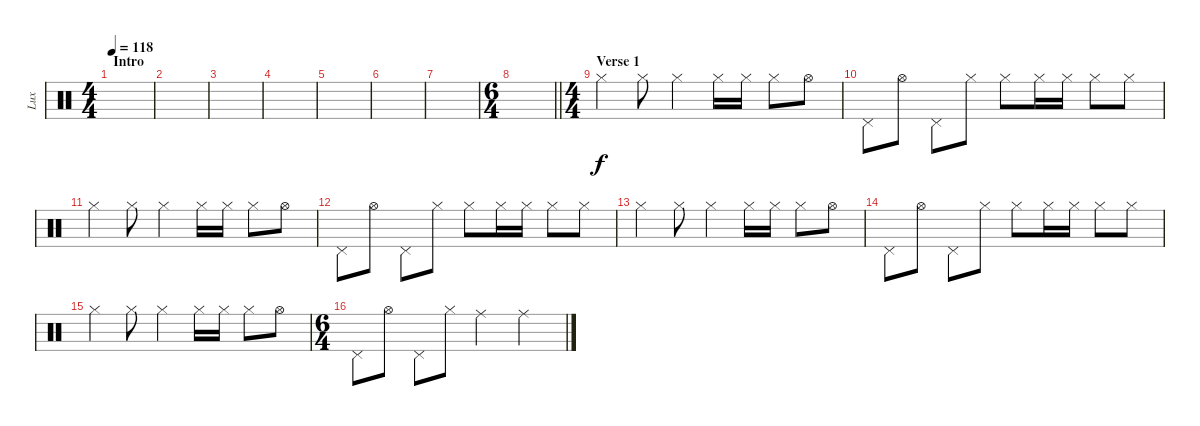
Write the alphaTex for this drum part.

\track ("Lux" "Lux") {instrument percussion}
\staff {score}
\articulation defaults
\ts (4 4)
\section ("" "Intro")
\tempo 118
\clef neutral
\ks c
|
|
|
|
|
|
|
\ts (6 4)
\barLineRight lightlight
|
\ts (4 4)
\section ("" "Verse 1")
"Hi-Hat (closed)".4 "Hi-Hat (closed)".8 "Hi-Hat (closed)".4 "Hi-Hat (closed)".16 "Hi-Hat (closed)".16 "Hi-Hat (closed)".8 "Hi-Hat (open)".8 |
"Pedal Hi-Hat (hit)".8 "Hi-Hat (open)".8 "Pedal Hi-Hat (hit)".8 "Hi-Hat (closed)".8 "Hi-Hat (closed)".8 "Hi-Hat (closed)".16 "Hi-Hat (closed)".16 "Hi-Hat (closed)".8 "Hi-Hat (closed)".8 |
"Hi-Hat (closed)".4 "Hi-Hat (closed)".8 "Hi-Hat (closed)".4 "Hi-Hat (closed)".16 "Hi-Hat (closed)".16 "Hi-Hat (closed)".8 "Hi-Hat (open)".8 |
"Pedal Hi-Hat (hit)".8 "Hi-Hat (open)".8 "Pedal Hi-Hat (hit)".8 "Hi-Hat (closed)".8 "Hi-Hat (closed)".8 "Hi-Hat (closed)".16 "Hi-Hat (closed)".16 "Hi-Hat (closed)".8 "Hi-Hat (closed)".8 |
"Hi-Hat (closed)".4 "Hi-Hat (closed)".8 "Hi-Hat (closed)".4 "Hi-Hat (closed)".16 "Hi-Hat (closed)".16 "Hi-Hat (closed)".8 "Hi-Hat (open)".8 |
"Pedal Hi-Hat (hit)".8 "Hi-Hat (open)".8 "Pedal Hi-Hat (hit)".8 "Hi-Hat (closed)".8 "Hi-Hat (closed)".8 "Hi-Hat (closed)".16 "Hi-Hat (closed)".16 "Hi-Hat (closed)".8 "Hi-Hat (closed)".8 |
"Hi-Hat (closed)".4 "Hi-Hat (closed)".8 "Hi-Hat (closed)".4 "Hi-Hat (closed)".16 "Hi-Hat (closed)".16 "Hi-Hat (closed)".8 "Hi-Hat (open)".8 |
\ts (6 4)
"Pedal Hi-Hat (hit)".8 "Hi-Hat (open)".8 "Pedal Hi-Hat (hit)".8 "Hi-Hat (closed)".8 "Ride (middle)".2 "Ride (middle)".2
